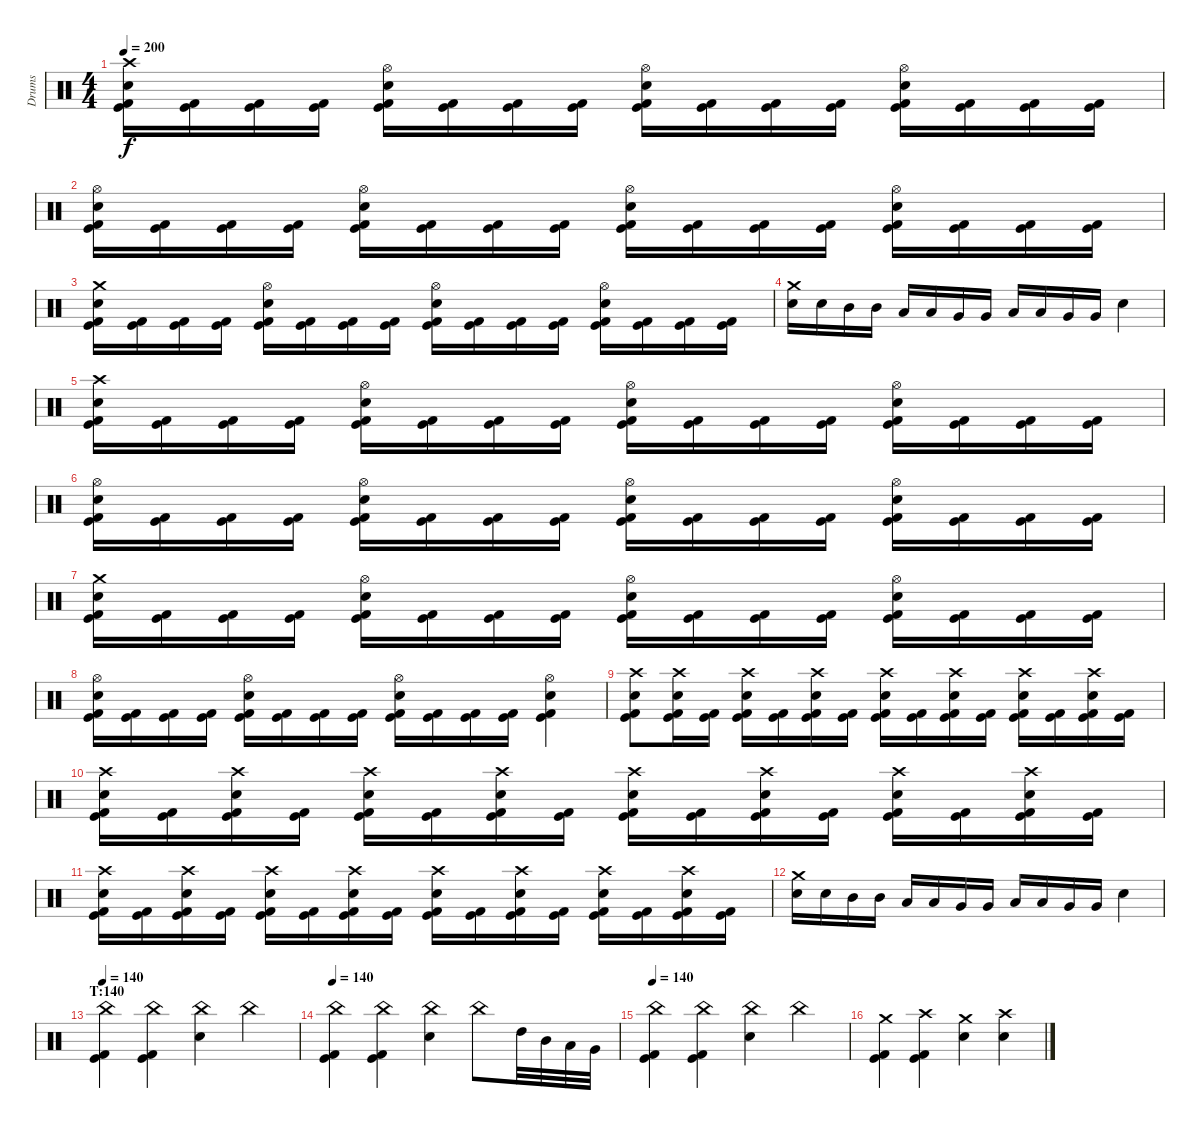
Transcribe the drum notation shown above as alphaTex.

\track ("Drums" "Drums") {instrument percussion}
\staff {score}
\articulation defaults
\ts (4 4)
\tempo 200
\clef neutral
\ks c
("Crash high (hit)" "Electric Snare (hit)" "Kick (hit)" "Kick (hit) 2").16{dy f} ("Kick (hit)" "Kick (hit) 2").16 ("Kick (hit)" "Kick (hit) 2").16 ("Kick (hit)" "Kick (hit) 2").16 ("Hi-Hat (open)" "Electric Snare (hit)" "Kick (hit)" "Kick (hit) 2").16 ("Kick (hit)" "Kick (hit) 2").16 ("Kick (hit)" "Kick (hit) 2").16 ("Kick (hit)" "Kick (hit) 2").16 ("Hi-Hat (open)" "Electric Snare (hit)" "Kick (hit)" "Kick (hit) 2").16 ("Kick (hit)" "Kick (hit) 2").16 ("Kick (hit)" "Kick (hit) 2").16 ("Kick (hit)" "Kick (hit) 2").16 ("Hi-Hat (open)" "Electric Snare (hit)" "Kick (hit)" "Kick (hit) 2").16 ("Kick (hit)" "Kick (hit) 2").16 ("Kick (hit)" "Kick (hit) 2").16 ("Kick (hit)" "Kick (hit) 2").16 |
("Hi-Hat (open)" "Electric Snare (hit)" "Kick (hit)" "Kick (hit) 2").16 ("Kick (hit)" "Kick (hit) 2").16 ("Kick (hit)" "Kick (hit) 2").16 ("Kick (hit)" "Kick (hit) 2").16 ("Hi-Hat (open)" "Electric Snare (hit)" "Kick (hit)" "Kick (hit) 2").16 ("Kick (hit)" "Kick (hit) 2").16 ("Kick (hit)" "Kick (hit) 2").16 ("Kick (hit)" "Kick (hit) 2").16 ("Hi-Hat (open)" "Electric Snare (hit)" "Kick (hit)" "Kick (hit) 2").16 ("Kick (hit)" "Kick (hit) 2").16 ("Kick (hit)" "Kick (hit) 2").16 ("Kick (hit)" "Kick (hit) 2").16 ("Hi-Hat (open)" "Electric Snare (hit)" "Kick (hit)" "Kick (hit) 2").16 ("Kick (hit)" "Kick (hit) 2").16 ("Kick (hit)" "Kick (hit) 2").16 ("Kick (hit)" "Kick (hit) 2").16 |
("Crash medium (hit)" "Electric Snare (hit)" "Kick (hit)" "Kick (hit) 2").16 ("Kick (hit)" "Kick (hit) 2").16 ("Kick (hit)" "Kick (hit) 2").16 ("Kick (hit)" "Kick (hit) 2").16 ("Hi-Hat (open)" "Electric Snare (hit)" "Kick (hit)" "Kick (hit) 2").16 ("Kick (hit)" "Kick (hit) 2").16 ("Kick (hit)" "Kick (hit) 2").16 ("Kick (hit)" "Kick (hit) 2").16 ("Hi-Hat (open)" "Electric Snare (hit)" "Kick (hit)" "Kick (hit) 2").16 ("Kick (hit)" "Kick (hit) 2").16 ("Kick (hit)" "Kick (hit) 2").16 ("Kick (hit)" "Kick (hit) 2").16 ("Hi-Hat (open)" "Electric Snare (hit)" "Kick (hit)" "Kick (hit) 2").16 ("Kick (hit)" "Kick (hit) 2").16 ("Kick (hit)" "Kick (hit) 2").16 ("Kick (hit)" "Kick (hit) 2").16 |
("Crash medium (hit)" "Electric Snare (hit)").16 "Electric Snare (hit)".16 "Mid Tom (hit)".16 "Mid Tom (hit)".16 "Low Tom (hit)".16 "Low Tom (hit)".16 "Very Low Tom (hit)".16 "Very Low Tom (hit)".16 "Low Tom (hit)".16 "Low Tom (hit)".16 "Very Low Tom (hit)".16 "Very Low Tom (hit)".16 "Electric Snare (hit)".4 |
("Crash high (hit)" "Electric Snare (hit)" "Kick (hit)" "Kick (hit) 2").16 ("Kick (hit)" "Kick (hit) 2").16 ("Kick (hit)" "Kick (hit) 2").16 ("Kick (hit)" "Kick (hit) 2").16 ("Hi-Hat (open)" "Electric Snare (hit)" "Kick (hit)" "Kick (hit) 2").16 ("Kick (hit)" "Kick (hit) 2").16 ("Kick (hit)" "Kick (hit) 2").16 ("Kick (hit)" "Kick (hit) 2").16 ("Hi-Hat (open)" "Electric Snare (hit)" "Kick (hit)" "Kick (hit) 2").16 ("Kick (hit)" "Kick (hit) 2").16 ("Kick (hit)" "Kick (hit) 2").16 ("Kick (hit)" "Kick (hit) 2").16 ("Hi-Hat (open)" "Electric Snare (hit)" "Kick (hit)" "Kick (hit) 2").16 ("Kick (hit)" "Kick (hit) 2").16 ("Kick (hit)" "Kick (hit) 2").16 ("Kick (hit)" "Kick (hit) 2").16 |
("Hi-Hat (open)" "Electric Snare (hit)" "Kick (hit)" "Kick (hit) 2").16 ("Kick (hit)" "Kick (hit) 2").16 ("Kick (hit)" "Kick (hit) 2").16 ("Kick (hit)" "Kick (hit) 2").16 ("Hi-Hat (open)" "Electric Snare (hit)" "Kick (hit)" "Kick (hit) 2").16 ("Kick (hit)" "Kick (hit) 2").16 ("Kick (hit)" "Kick (hit) 2").16 ("Kick (hit)" "Kick (hit) 2").16 ("Hi-Hat (open)" "Electric Snare (hit)" "Kick (hit)" "Kick (hit) 2").16 ("Kick (hit)" "Kick (hit) 2").16 ("Kick (hit)" "Kick (hit) 2").16 ("Kick (hit)" "Kick (hit) 2").16 ("Hi-Hat (open)" "Electric Snare (hit)" "Kick (hit)" "Kick (hit) 2").16 ("Kick (hit)" "Kick (hit) 2").16 ("Kick (hit)" "Kick (hit) 2").16 ("Kick (hit)" "Kick (hit) 2").16 |
("Crash medium (hit)" "Electric Snare (hit)" "Kick (hit)" "Kick (hit) 2").16 ("Kick (hit)" "Kick (hit) 2").16 ("Kick (hit)" "Kick (hit) 2").16 ("Kick (hit)" "Kick (hit) 2").16 ("Hi-Hat (open)" "Electric Snare (hit)" "Kick (hit)" "Kick (hit) 2").16 ("Kick (hit)" "Kick (hit) 2").16 ("Kick (hit)" "Kick (hit) 2").16 ("Kick (hit)" "Kick (hit) 2").16 ("Hi-Hat (open)" "Electric Snare (hit)" "Kick (hit)" "Kick (hit) 2").16 ("Kick (hit)" "Kick (hit) 2").16 ("Kick (hit)" "Kick (hit) 2").16 ("Kick (hit)" "Kick (hit) 2").16 ("Hi-Hat (open)" "Electric Snare (hit)" "Kick (hit)" "Kick (hit) 2").16 ("Kick (hit)" "Kick (hit) 2").16 ("Kick (hit)" "Kick (hit) 2").16 ("Kick (hit)" "Kick (hit) 2").16 |
("Hi-Hat (open)" "Electric Snare (hit)" "Kick (hit)" "Kick (hit) 2").16 ("Kick (hit)" "Kick (hit) 2").16 ("Kick (hit)" "Kick (hit) 2").16 ("Kick (hit)" "Kick (hit) 2").16 ("Hi-Hat (open)" "Electric Snare (hit)" "Kick (hit)" "Kick (hit) 2").16 ("Kick (hit)" "Kick (hit) 2").16 ("Kick (hit)" "Kick (hit) 2").16 ("Kick (hit)" "Kick (hit) 2").16 ("Hi-Hat (open)" "Electric Snare (hit)" "Kick (hit)" "Kick (hit) 2").16 ("Kick (hit)" "Kick (hit) 2").16 ("Kick (hit)" "Kick (hit) 2").16 ("Kick (hit)" "Kick (hit) 2").16 ("Hi-Hat (open)" "Electric Snare (hit)" "Kick (hit)" "Kick (hit) 2").4 |
("Crash high (hit)" "Electric Snare (hit)" "Kick (hit)" "Kick (hit) 2").8 ("Crash high (hit)" "Electric Snare (hit)" "Kick (hit)" "Kick (hit) 2").16 ("Kick (hit)" "Kick (hit) 2").16 ("Crash high (hit)" "Electric Snare (hit)" "Kick (hit)" "Kick (hit) 2").16 ("Kick (hit)" "Kick (hit) 2").16 ("Crash high (hit)" "Electric Snare (hit)" "Kick (hit)" "Kick (hit) 2").16 ("Kick (hit)" "Kick (hit) 2").16 ("Crash high (hit)" "Electric Snare (hit)" "Kick (hit)" "Kick (hit) 2").16 ("Kick (hit)" "Kick (hit) 2").16 ("Crash high (hit)" "Electric Snare (hit)" "Kick (hit)" "Kick (hit) 2").16 ("Kick (hit)" "Kick (hit) 2").16 ("Crash high (hit)" "Electric Snare (hit)" "Kick (hit)" "Kick (hit) 2").16 ("Kick (hit)" "Kick (hit) 2").16 ("Crash high (hit)" "Electric Snare (hit)" "Kick (hit)" "Kick (hit) 2").16 ("Kick (hit)" "Kick (hit) 2").16 |
("Crash high (hit)" "Electric Snare (hit)" "Kick (hit)" "Kick (hit) 2").16 ("Kick (hit)" "Kick (hit) 2").16 ("Crash high (hit)" "Electric Snare (hit)" "Kick (hit)" "Kick (hit) 2").16 ("Kick (hit)" "Kick (hit) 2").16 ("Crash high (hit)" "Electric Snare (hit)" "Kick (hit)" "Kick (hit) 2").16 ("Kick (hit)" "Kick (hit) 2").16 ("Crash high (hit)" "Electric Snare (hit)" "Kick (hit)" "Kick (hit) 2").16 ("Kick (hit)" "Kick (hit) 2").16 ("Crash high (hit)" "Electric Snare (hit)" "Kick (hit)" "Kick (hit) 2").16 ("Kick (hit)" "Kick (hit) 2").16 ("Crash high (hit)" "Electric Snare (hit)" "Kick (hit)" "Kick (hit) 2").16 ("Kick (hit)" "Kick (hit) 2").16 ("Crash high (hit)" "Electric Snare (hit)" "Kick (hit)" "Kick (hit) 2").16 ("Kick (hit)" "Kick (hit) 2").16 ("Crash high (hit)" "Electric Snare (hit)" "Kick (hit)" "Kick (hit) 2").16 ("Kick (hit)" "Kick (hit) 2").16 |
("Crash high (hit)" "Electric Snare (hit)" "Kick (hit)" "Kick (hit) 2").16 ("Kick (hit)" "Kick (hit) 2").16 ("Crash high (hit)" "Electric Snare (hit)" "Kick (hit)" "Kick (hit) 2").16 ("Kick (hit)" "Kick (hit) 2").16 ("Crash high (hit)" "Electric Snare (hit)" "Kick (hit)" "Kick (hit) 2").16 ("Kick (hit)" "Kick (hit) 2").16 ("Crash high (hit)" "Electric Snare (hit)" "Kick (hit)" "Kick (hit) 2").16 ("Kick (hit)" "Kick (hit) 2").16 ("Crash high (hit)" "Electric Snare (hit)" "Kick (hit)" "Kick (hit) 2").16 ("Kick (hit)" "Kick (hit) 2").16 ("Crash high (hit)" "Electric Snare (hit)" "Kick (hit)" "Kick (hit) 2").16 ("Kick (hit)" "Kick (hit) 2").16 ("Crash high (hit)" "Electric Snare (hit)" "Kick (hit)" "Kick (hit) 2").16 ("Kick (hit)" "Kick (hit) 2").16 ("Crash high (hit)" "Electric Snare (hit)" "Kick (hit)" "Kick (hit) 2").16 ("Kick (hit)" "Kick (hit) 2").16 |
("Crash medium (hit)" "Electric Snare (hit)").16 "Electric Snare (hit)".16 "Mid Tom (hit)".16 "Mid Tom (hit)".16 "Low Tom (hit)".16 "Low Tom (hit)".16 "Very Low Tom (hit)".16 "Very Low Tom (hit)".16 "Low Tom (hit)".16 "Low Tom (hit)".16 "Very Low Tom (hit)".16 "Very Low Tom (hit)".16 "Electric Snare (hit)".4 |
\section ("" "T:140")
\tempo 140
("China (hit)" "Kick (hit)" "Kick (hit) 2").4 ("China (hit)" "Kick (hit)" "Kick (hit) 2").4 ("China (hit)" "Electric Snare (hit)").4 "China (hit)".4 |
\tempo 140
("China (hit)" "Kick (hit)" "Kick (hit) 2").4 ("China (hit)" "Kick (hit)" "Kick (hit) 2").4 ("China (hit)" "Electric Snare (hit)").4 "China (hit)".8 "High Tom (hit)".32 "Mid Tom (hit)".32 "Low Tom (hit)".32 "Very Low Tom (hit)".32 |
\tempo 140
("China (hit)" "Kick (hit)" "Kick (hit) 2").4 ("China (hit)" "Kick (hit)" "Kick (hit) 2").4 ("China (hit)" "Electric Snare (hit)").4 "China (hit)".4 |
("Crash medium (hit)" "Kick (hit)" "Kick (hit) 2").4 ("Crash high (hit)" "Kick (hit)" "Kick (hit) 2").4 ("Crash medium (hit)" "Electric Snare (hit)").4 ("Crash high (hit)" "Electric Snare (hit)").4
